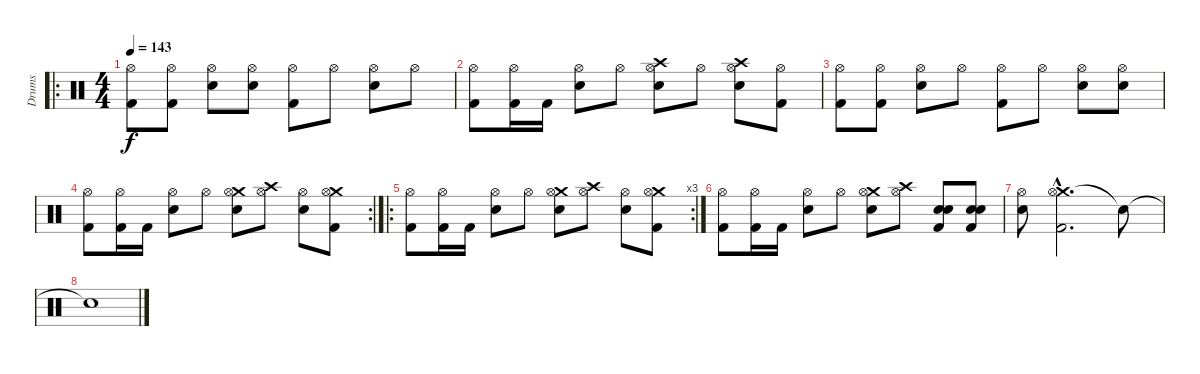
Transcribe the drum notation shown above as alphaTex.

\track ("Drums" "Drums") {instrument percussion}
\staff {score}
\articulation defaults
\ro
\ts (4 4)
\tempo 143
\clef neutral
\ks c
("Hi-Hat (open)" "Kick (hit) 2").8{dy f} ("Hi-Hat (open)" "Kick (hit) 2").8 ("Hi-Hat (open)" "Electric Snare (hit)").8 ("Hi-Hat (open)" "Electric Snare (hit)").8 ("Hi-Hat (open)" "Kick (hit) 2").8 "Hi-Hat (open)".8 ("Hi-Hat (open)" "Electric Snare (hit)").8 "Hi-Hat (open)".8 |
("Hi-Hat (open)" "Kick (hit) 2").8 ("Hi-Hat (open)" "Kick (hit) 2").16 "Kick (hit) 2".16 ("Hi-Hat (open)" "Electric Snare (hit)").8 "Hi-Hat (open)".8 ("Crash high (hit)" "Hi-Hat (open)" "Electric Snare (hit)").8 "Hi-Hat (open)".8 ("Crash high (hit)" "Hi-Hat (open)" "Electric Snare (hit)").8 ("Hi-Hat (open)" "Kick (hit) 2").8 |
("Hi-Hat (open)" "Kick (hit) 2").8 ("Hi-Hat (open)" "Kick (hit) 2").8 ("Hi-Hat (open)" "Electric Snare (hit)").8 "Hi-Hat (open)".8 ("Hi-Hat (open)" "Kick (hit) 2").8 "Hi-Hat (open)".8 ("Hi-Hat (open)" "Electric Snare (hit)").8 ("Hi-Hat (open)" "Electric Snare (hit)").8 |
\rc 2
("Hi-Hat (open)" "Kick (hit) 2").8 ("Hi-Hat (open)" "Kick (hit) 2").16 "Kick (hit) 2".16 ("Hi-Hat (open)" "Electric Snare (hit)").8 "Hi-Hat (open)".8 ("Crash medium (hit)" "Hi-Hat (open)" "Electric Snare (hit)").8 ("Crash high (hit)" "Hi-Hat (open)").8 ("Hi-Hat (open)" "Electric Snare (hit)").8 ("Crash medium (hit)" "Hi-Hat (open)" "Kick (hit) 2").8 |
\ro
\rc 3
("Hi-Hat (open)" "Kick (hit) 2").8 ("Hi-Hat (open)" "Kick (hit) 2").16 "Kick (hit) 2".16 ("Hi-Hat (open)" "Electric Snare (hit)").8 "Hi-Hat (open)".8 ("Crash medium (hit)" "Hi-Hat (open)" "Electric Snare (hit)").8 ("Crash high (hit)" "Hi-Hat (open)").8 ("Hi-Hat (open)" "Electric Snare (hit)").8 ("Crash medium (hit)" "Hi-Hat (open)" "Kick (hit) 2").8 |
("Hi-Hat (open)" "Kick (hit) 2").8 ("Hi-Hat (open)" "Kick (hit) 2").16 "Kick (hit) 2".16 ("Hi-Hat (open)" "Electric Snare (hit)").8 "Hi-Hat (open)".8 ("Crash medium (hit)" "Hi-Hat (open)" "Electric Snare (hit)").8 ("Crash high (hit)" "Hi-Hat (open)").8 ("Electric Snare (hit)" "Electric Snare (hit)" "Kick (hit) 2").8 ("Electric Snare (hit)" "Electric Snare (hit)" "Kick (hit) 2").8 |
("Hi-Hat (open)" "Electric Snare (hit)").8 ("Crash medium (hit)"{hac} "Hi-Hat (open)"{hac} "Kick (hit) 2"{hac}).2{d} "Snare (hit)"{t}.8 |
"Snare (hit)"{t}.1
